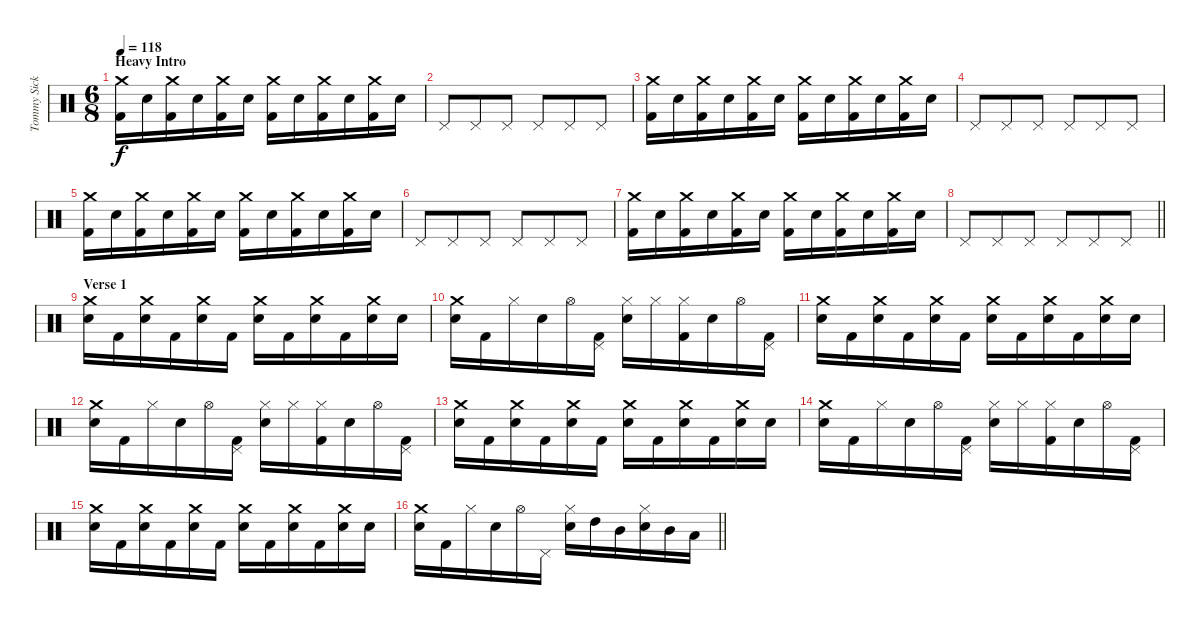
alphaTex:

\track ("Tommy Sickles" "Tommy Sick") {instrument percussion}
\staff {score}
\articulation defaults
\ts (6 8)
\section ("" "Heavy Intro")
\tempo 118
\clef neutral
\ks c
("Crash medium (hit)" "Kick (hit) 2").16{dy f volume 16} "Electric Snare (hit)".16 ("Crash medium (hit)" "Kick (hit) 2").16 "Electric Snare (hit)".16 ("Crash medium (hit)" "Kick (hit) 2").16 "Electric Snare (hit)".16 ("Crash medium (hit)" "Kick (hit) 2").16 "Electric Snare (hit)".16 ("Crash medium (hit)" "Kick (hit) 2").16 "Electric Snare (hit)".16 ("Crash medium (hit)" "Kick (hit) 2").16 "Electric Snare (hit)".16 |
"Pedal Hi-Hat (hit)".8 "Pedal Hi-Hat (hit)".8 "Pedal Hi-Hat (hit)".8 "Pedal Hi-Hat (hit)".8 "Pedal Hi-Hat (hit)".8 "Pedal Hi-Hat (hit)".8 |
("Crash medium (hit)" "Kick (hit) 2").16 "Electric Snare (hit)".16 ("Crash medium (hit)" "Kick (hit) 2").16 "Electric Snare (hit)".16 ("Crash medium (hit)" "Kick (hit) 2").16 "Electric Snare (hit)".16 ("Crash medium (hit)" "Kick (hit) 2").16 "Electric Snare (hit)".16 ("Crash medium (hit)" "Kick (hit) 2").16 "Electric Snare (hit)".16 ("Crash medium (hit)" "Kick (hit) 2").16 "Electric Snare (hit)".16 |
"Pedal Hi-Hat (hit)".8 "Pedal Hi-Hat (hit)".8 "Pedal Hi-Hat (hit)".8 "Pedal Hi-Hat (hit)".8 "Pedal Hi-Hat (hit)".8 "Pedal Hi-Hat (hit)".8 |
("Crash medium (hit)" "Kick (hit) 2").16 "Electric Snare (hit)".16 ("Crash medium (hit)" "Kick (hit) 2").16 "Electric Snare (hit)".16 ("Crash medium (hit)" "Kick (hit) 2").16 "Electric Snare (hit)".16 ("Crash medium (hit)" "Kick (hit) 2").16 "Electric Snare (hit)".16 ("Crash medium (hit)" "Kick (hit) 2").16 "Electric Snare (hit)".16 ("Crash medium (hit)" "Kick (hit) 2").16 "Electric Snare (hit)".16 |
"Pedal Hi-Hat (hit)".8 "Pedal Hi-Hat (hit)".8 "Pedal Hi-Hat (hit)".8 "Pedal Hi-Hat (hit)".8 "Pedal Hi-Hat (hit)".8 "Pedal Hi-Hat (hit)".8 |
("Crash medium (hit)" "Kick (hit) 2").16 "Electric Snare (hit)".16 ("Crash medium (hit)" "Kick (hit) 2").16 "Electric Snare (hit)".16 ("Crash medium (hit)" "Kick (hit) 2").16 "Electric Snare (hit)".16 ("Crash medium (hit)" "Kick (hit) 2").16 "Electric Snare (hit)".16 ("Crash medium (hit)" "Kick (hit) 2").16 "Electric Snare (hit)".16 ("Crash medium (hit)" "Kick (hit) 2").16 "Electric Snare (hit)".16 |
\barLineRight lightlight "Pedal Hi-Hat (hit)".8 "Pedal Hi-Hat (hit)".8 "Pedal Hi-Hat (hit)".8 "Pedal Hi-Hat (hit)".8 "Pedal Hi-Hat (hit)".8 "Pedal Hi-Hat (hit)".8
|
\section ("" "Verse 1")
("Crash medium (hit)" "Electric Snare (hit)").16 "Kick (hit) 2".16 ("Crash medium (hit)" "Electric Snare (hit)").16 "Kick (hit) 2".16 ("Crash medium (hit)" "Electric Snare (hit)").16 "Kick (hit) 2".16 ("Crash medium (hit)" "Electric Snare (hit)").16 "Kick (hit) 2".16 ("Crash medium (hit)" "Electric Snare (hit)").16 "Kick (hit) 2".16 ("Crash medium (hit)" "Electric Snare (hit)").16 "Electric Snare (hit)".16 |
("Crash medium (hit)" "Electric Snare (hit)").16 "Kick (hit) 2".16 "Hi-Hat (closed)".16 "Electric Snare (hit)".16 "Hi-Hat (open)".16 ("Pedal Hi-Hat (hit)" "Kick (hit) 2").16 ("Hi-Hat (closed)" "Electric Snare (hit)").16 "Hi-Hat (closed)".16 ("Hi-Hat (closed)" "Kick (hit) 2").16 "Electric Snare (hit)".16 "Hi-Hat (open)".16 ("Pedal Hi-Hat (hit)" "Kick (hit) 2").16 |
("Crash medium (hit)" "Electric Snare (hit)").16 "Kick (hit) 2".16 ("Crash medium (hit)" "Electric Snare (hit)").16 "Kick (hit) 2".16 ("Crash medium (hit)" "Electric Snare (hit)").16 "Kick (hit) 2".16 ("Crash medium (hit)" "Electric Snare (hit)").16 "Kick (hit) 2".16 ("Crash medium (hit)" "Electric Snare (hit)").16 "Kick (hit) 2".16 ("Crash medium (hit)" "Electric Snare (hit)").16 "Electric Snare (hit)".16 |
("Crash medium (hit)" "Electric Snare (hit)").16 "Kick (hit) 2".16 "Hi-Hat (closed)".16 "Electric Snare (hit)".16 "Hi-Hat (open)".16 ("Pedal Hi-Hat (hit)" "Kick (hit) 2").16 ("Hi-Hat (closed)" "Electric Snare (hit)").16 "Hi-Hat (closed)".16 ("Hi-Hat (closed)" "Kick (hit) 2").16 "Electric Snare (hit)".16 "Hi-Hat (open)".16 ("Pedal Hi-Hat (hit)" "Kick (hit) 2").16 |
("Crash medium (hit)" "Electric Snare (hit)").16 "Kick (hit) 2".16 ("Crash medium (hit)" "Electric Snare (hit)").16 "Kick (hit) 2".16 ("Crash medium (hit)" "Electric Snare (hit)").16 "Kick (hit) 2".16 ("Crash medium (hit)" "Electric Snare (hit)").16 "Kick (hit) 2".16 ("Crash medium (hit)" "Electric Snare (hit)").16 "Kick (hit) 2".16 ("Crash medium (hit)" "Electric Snare (hit)").16 "Electric Snare (hit)".16 |
("Crash medium (hit)" "Electric Snare (hit)").16 "Kick (hit) 2".16 "Hi-Hat (closed)".16 "Electric Snare (hit)".16 "Hi-Hat (open)".16 ("Pedal Hi-Hat (hit)" "Kick (hit) 2").16 ("Hi-Hat (closed)" "Electric Snare (hit)").16 "Hi-Hat (closed)".16 ("Hi-Hat (closed)" "Kick (hit) 2").16 "Electric Snare (hit)".16 "Hi-Hat (open)".16 ("Pedal Hi-Hat (hit)" "Kick (hit) 2").16 |
("Crash medium (hit)" "Electric Snare (hit)").16 "Kick (hit) 2".16 ("Crash medium (hit)" "Electric Snare (hit)").16 "Kick (hit) 2".16 ("Crash medium (hit)" "Electric Snare (hit)").16 "Kick (hit) 2".16 ("Crash medium (hit)" "Electric Snare (hit)").16 "Kick (hit) 2".16 ("Crash medium (hit)" "Electric Snare (hit)").16 "Kick (hit) 2".16 ("Crash medium (hit)" "Electric Snare (hit)").16 "Electric Snare (hit)".16 |
\barLineRight lightlight
("Crash medium (hit)" "Electric Snare (hit)").16 "Kick (hit) 2".16 "Hi-Hat (closed)".16 "Electric Snare (hit)".16 "Hi-Hat (open)".16 "Pedal Hi-Hat (hit)".16 ("Hi-Hat (closed)" "Electric Snare (hit)").16 "High Tom (hit)".16 "Mid Tom (hit)".16 ("Hi-Hat (closed)" "Electric Snare (hit)").16 "Mid Tom (hit)".16 "Low Tom (hit)".16
